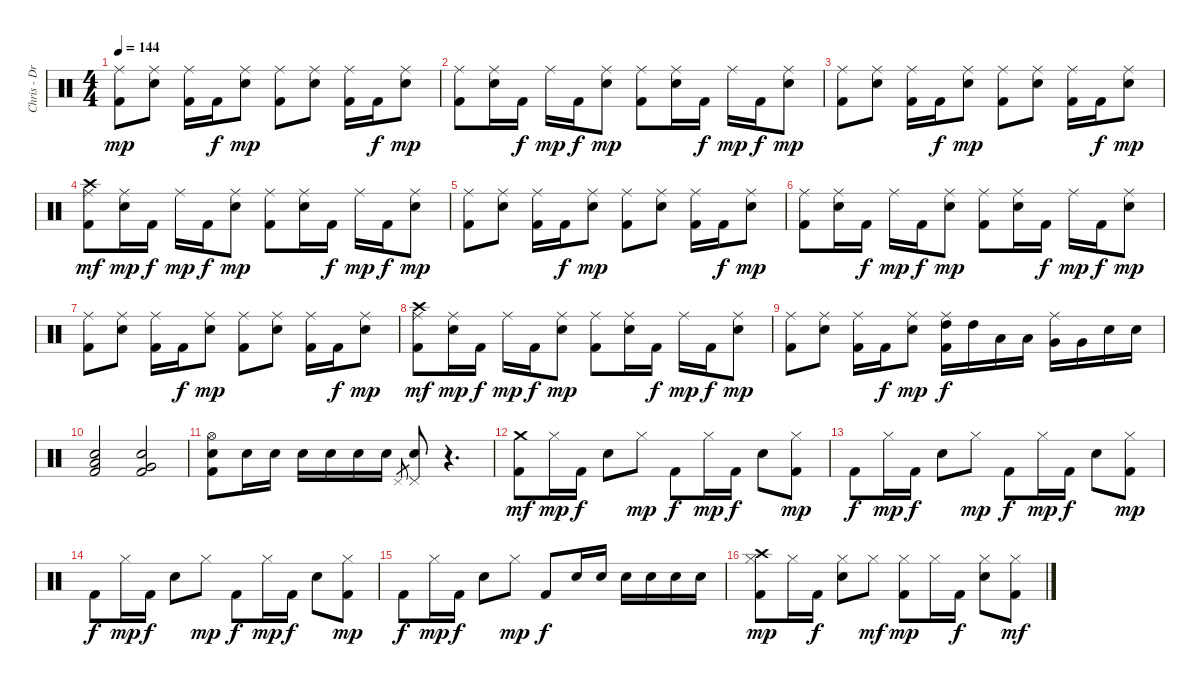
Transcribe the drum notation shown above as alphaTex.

\track ("Chris - Drums" "Chris - Dr") {instrument percussion}
\staff {score}
\articulation defaults
\ts (4 4)
\tempo 144
\clef neutral
\ks c
("Ride (middle)" "Kick (hit) 2").8{dy mp} ("Ride (middle)" "Electric Snare (hit)").8 ("Ride (middle)" "Kick (hit) 2").16 "Kick (hit) 2".16{dy f} ("Ride (middle)" "Electric Snare (hit)").8{dy mp} ("Ride (middle)" "Kick (hit) 2").8 ("Ride (middle)" "Electric Snare (hit)").8 ("Ride (middle)" "Kick (hit) 2").16 "Kick (hit) 2".16{dy f} ("Ride (middle)" "Electric Snare (hit)").8{dy mp} |
("Ride (middle)" "Kick (hit) 2").8 ("Ride (middle)" "Electric Snare (hit)").16 "Kick (hit) 2".16{dy f} "Ride (middle)".16{dy mp} "Kick (hit) 2".16{dy f} ("Ride (middle)" "Electric Snare (hit)").8{dy mp} ("Ride (middle)" "Kick (hit) 2").8 ("Ride (middle)" "Electric Snare (hit)").16 "Kick (hit) 2".16{dy f} "Ride (middle)".16{dy mp} "Kick (hit) 2".16{dy f} ("Ride (middle)" "Electric Snare (hit)").8{dy mp} |
("Ride (middle)" "Kick (hit) 2").8 ("Ride (middle)" "Electric Snare (hit)").8 ("Ride (middle)" "Kick (hit) 2").16 "Kick (hit) 2".16{dy f} ("Ride (middle)" "Electric Snare (hit)").8{dy mp} ("Ride (middle)" "Kick (hit) 2").8 ("Ride (middle)" "Electric Snare (hit)").8 ("Ride (middle)" "Kick (hit) 2").16 "Kick (hit) 2".16{dy f} ("Ride (middle)" "Electric Snare (hit)").8{dy mp} |
("Ride (middle)" "Crash high (hit)" "Kick (hit) 2").8{dy mf} ("Ride (middle)" "Electric Snare (hit)").16{dy mp} "Kick (hit) 2".16{dy f} "Ride (middle)".16{dy mp} "Kick (hit) 2".16{dy f} ("Ride (middle)" "Electric Snare (hit)").8{dy mp} ("Ride (middle)" "Kick (hit) 2").8 ("Ride (middle)" "Electric Snare (hit)").16 "Kick (hit) 2".16{dy f} "Ride (middle)".16{dy mp} "Kick (hit) 2".16{dy f} ("Ride (middle)" "Electric Snare (hit)").8{dy mp} |
("Ride (middle)" "Kick (hit) 2").8 ("Ride (middle)" "Electric Snare (hit)").8 ("Ride (middle)" "Kick (hit) 2").16 "Kick (hit) 2".16{dy f} ("Ride (middle)" "Electric Snare (hit)").8{dy mp} ("Ride (middle)" "Kick (hit) 2").8 ("Ride (middle)" "Electric Snare (hit)").8 ("Ride (middle)" "Kick (hit) 2").16 "Kick (hit) 2".16{dy f} ("Ride (middle)" "Electric Snare (hit)").8{dy mp} |
("Ride (middle)" "Kick (hit) 2").8 ("Ride (middle)" "Electric Snare (hit)").16 "Kick (hit) 2".16{dy f} "Ride (middle)".16{dy mp} "Kick (hit) 2".16{dy f} ("Ride (middle)" "Electric Snare (hit)").8{dy mp} ("Ride (middle)" "Kick (hit) 2").8 ("Ride (middle)" "Electric Snare (hit)").16 "Kick (hit) 2".16{dy f} "Ride (middle)".16{dy mp} "Kick (hit) 2".16{dy f} ("Ride (middle)" "Electric Snare (hit)").8{dy mp} |
("Ride (middle)" "Kick (hit) 2").8 ("Ride (middle)" "Electric Snare (hit)").8 ("Ride (middle)" "Kick (hit) 2").16 "Kick (hit) 2".16{dy f} ("Ride (middle)" "Electric Snare (hit)").8{dy mp} ("Ride (middle)" "Kick (hit) 2").8 ("Ride (middle)" "Electric Snare (hit)").8 ("Ride (middle)" "Kick (hit) 2").16 "Kick (hit) 2".16{dy f} ("Ride (middle)" "Electric Snare (hit)").8{dy mp} |
("Ride (middle)" "Crash high (hit)" "Kick (hit) 2").8{dy mf} ("Ride (middle)" "Electric Snare (hit)").16{dy mp} "Kick (hit) 2".16{dy f} "Ride (middle)".16{dy mp} "Kick (hit) 2".16{dy f} ("Ride (middle)" "Electric Snare (hit)").8{dy mp} ("Ride (middle)" "Kick (hit) 2").8 ("Ride (middle)" "Electric Snare (hit)").16 "Kick (hit) 2".16{dy f} "Ride (middle)".16{dy mp} "Kick (hit) 2".16{dy f} ("Ride (middle)" "Electric Snare (hit)").8{dy mp} |
("Ride (middle)" "Kick (hit) 2").8 ("Ride (middle)" "Electric Snare (hit)").8 ("Ride (middle)" "Kick (hit) 2").16 "Kick (hit) 2".16{dy f} ("Ride (middle)" "Electric Snare (hit)").8{dy mp} ("Ride (middle)" "High Tom (hit)" "Kick (hit) 2").16{dy f} "High Tom (hit)".16 "Low Tom (hit)".16 "Low Tom (hit)".16 ("Ride (middle)" "Very Low Tom (hit)").16 "Very Low Tom (hit)".16 "Electric Snare (hit)".16 "Electric Snare (hit)".16 |
("Low Tom (hit)" "Electric Snare (hit)" "Kick (hit) 2").2 ("Very Low Tom (hit)" "Electric Snare (hit)" "Kick (hit) 2").2 |
("Hi-Hat (open)" "Electric Snare (hit)" "Kick (hit) 2").8 "Electric Snare (hit)".16 "Electric Snare (hit)".16 "Electric Snare (hit)".16 "Electric Snare (hit)".16 "Electric Snare (hit)".16 "Electric Snare (hit)".16 "Pedal Hi-Hat (hit)".8{gr} ("Pedal Hi-Hat (hit)" "Electric Snare (hit)").8 r.4{d} |
("Crash medium (hit)" "Kick (hit) 2").8{dy mf} "Hi-Hat (closed)".16{dy mp} "Kick (hit) 2".16{dy f} "Electric Snare (hit)".8 "Hi-Hat (closed)".8{dy mp} "Kick (hit) 2".8{dy f} "Hi-Hat (closed)".16{dy mp} "Kick (hit) 2".16{dy f} "Electric Snare (hit)".8 ("Hi-Hat (closed)" "Kick (hit) 2").8{dy mp} |
"Kick (hit) 2".8{dy f} "Hi-Hat (closed)".16{dy mp} "Kick (hit) 2".16{dy f} "Electric Snare (hit)".8 "Hi-Hat (closed)".8{dy mp} "Kick (hit) 2".8{dy f} "Hi-Hat (closed)".16{dy mp} "Kick (hit) 2".16{dy f} "Electric Snare (hit)".8 ("Hi-Hat (closed)" "Kick (hit) 2").8{dy mp} |
"Kick (hit) 2".8{dy f} "Hi-Hat (closed)".16{dy mp} "Kick (hit) 2".16{dy f} "Electric Snare (hit)".8 "Hi-Hat (closed)".8{dy mp} "Kick (hit) 2".8{dy f} "Hi-Hat (closed)".16{dy mp} "Kick (hit) 2".16{dy f} "Electric Snare (hit)".8 ("Hi-Hat (closed)" "Kick (hit) 2").8{dy mp} |
"Kick (hit) 2".8{dy f} "Hi-Hat (closed)".16{dy mp} "Kick (hit) 2".16{dy f} "Electric Snare (hit)".8 "Hi-Hat (closed)".8{dy mp} "Kick (hit) 2".8{dy f} "Electric Snare (hit)".16 "Electric Snare (hit)".16 "Electric Snare (hit)".16 "Electric Snare (hit)".16 "Electric Snare (hit)".16 "Electric Snare (hit)".16 |
("Crash high (hit)" "Hi-Hat (closed)" "Kick (hit) 2").8{dy mp} "Hi-Hat (closed)".16 "Kick (hit) 2".16{dy f} ("Hi-Hat (closed)" "Electric Snare (hit)").8 "Hi-Hat (closed)".8{dy mf} ("Hi-Hat (closed)" "Kick (hit) 2").8{dy mp} "Hi-Hat (closed)".16 "Kick (hit) 2".16{dy f} ("Hi-Hat (closed)" "Electric Snare (hit)").8 ("Hi-Hat (closed)" "Kick (hit) 2").8{dy mf}
